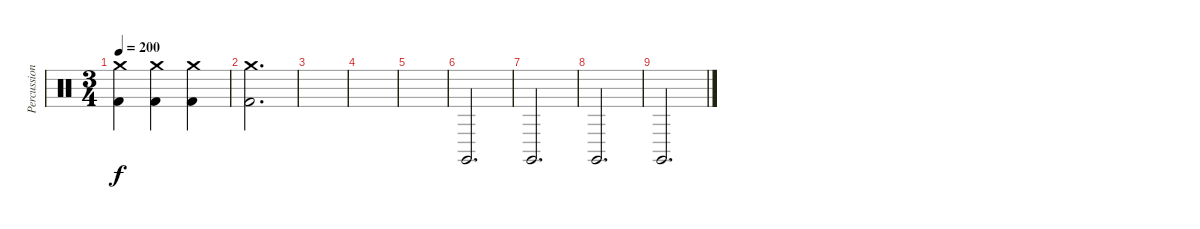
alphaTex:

\track ("Percussion" "Percussion") {instrument percussion}
\staff {score}
\articulation defaults
\ts (3 4)
\tempo 200
\clef neutral
\ks c
("Crash medium (hit)" "Kick (hit) 2").4{dy f} ("Crash medium (hit)" "Kick (hit) 2").4 ("Crash medium (hit)" "Kick (hit) 2").4 |
("Crash medium (hit)" "Kick (hit) 2").2{d} |
|
|
|
"Claves (hit)".2{d} |
"Claves (hit)".2{d} |
"Claves (hit)".2{d} |
"Claves (hit)".2{d}
